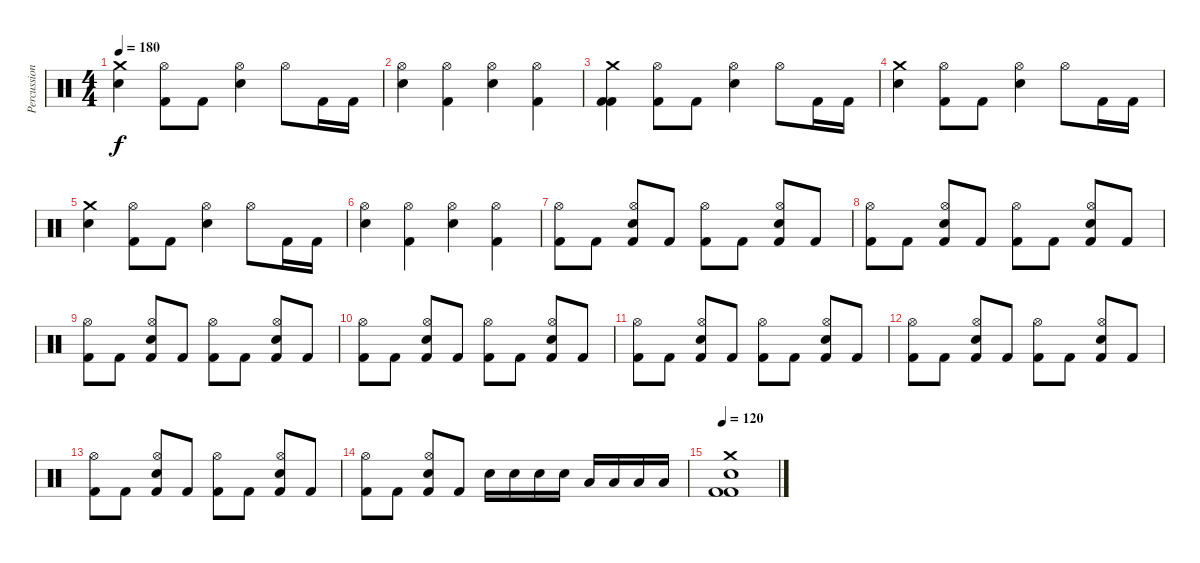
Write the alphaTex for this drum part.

\track ("Percussion" "Percussion") {instrument percussion}
\staff {score}
\articulation defaults
\ts (4 4)
\tempo 180
\clef neutral
\ks c
("Crash medium (hit)" "Electric Snare (hit)").4{dy f} ("Hi-Hat (open)" "Kick (hit) 2").8 "Kick (hit) 2".8 ("Hi-Hat (open)" "Electric Snare (hit)").4 "Hi-Hat (open)".8 "Kick (hit) 2".16 "Kick (hit) 2".16 |
("Hi-Hat (open)" "Electric Snare (hit)").4 ("Hi-Hat (open)" "Kick (hit) 2").4 ("Hi-Hat (open)" "Electric Snare (hit)").4 ("Hi-Hat (open)" "Kick (hit) 2").4 |
("Crash medium (hit)" "Kick (hit) 2" "Kick (hit) 2").4 ("Hi-Hat (open)" "Kick (hit) 2").8 "Kick (hit) 2".8 ("Hi-Hat (open)" "Electric Snare (hit)").4 "Hi-Hat (open)".8 "Kick (hit) 2".16 "Kick (hit) 2".16 |
("Crash medium (hit)" "Electric Snare (hit)").4 ("Hi-Hat (open)" "Kick (hit) 2").8 "Kick (hit) 2".8 ("Hi-Hat (open)" "Electric Snare (hit)").4 "Hi-Hat (open)".8 "Kick (hit) 2".16 "Kick (hit) 2".16 |
("Crash medium (hit)" "Electric Snare (hit)").4 ("Hi-Hat (open)" "Kick (hit) 2").8 "Kick (hit) 2".8 ("Hi-Hat (open)" "Electric Snare (hit)").4 "Hi-Hat (open)".8 "Kick (hit) 2".16 "Kick (hit) 2".16 |
("Hi-Hat (open)" "Electric Snare (hit)").4 ("Hi-Hat (open)" "Kick (hit) 2").4 ("Hi-Hat (open)" "Electric Snare (hit)").4 ("Hi-Hat (open)" "Kick (hit) 2").4 |
("Hi-Hat (open)" "Kick (hit) 2").8 "Kick (hit) 2".8 ("Hi-Hat (open)" "Kick (hit) 2" "Electric Snare (hit)").8 "Kick (hit) 2".8 ("Hi-Hat (open)" "Kick (hit) 2").8 "Kick (hit) 2".8 ("Hi-Hat (open)" "Kick (hit) 2" "Electric Snare (hit)").8 "Kick (hit) 2".8 |
("Hi-Hat (open)" "Kick (hit) 2").8 "Kick (hit) 2".8 ("Hi-Hat (open)" "Kick (hit) 2" "Electric Snare (hit)").8 "Kick (hit) 2".8 ("Hi-Hat (open)" "Kick (hit) 2").8 "Kick (hit) 2".8 ("Hi-Hat (open)" "Kick (hit) 2" "Electric Snare (hit)").8 "Kick (hit) 2".8 |
("Hi-Hat (open)" "Kick (hit) 2").8 "Kick (hit) 2".8 ("Hi-Hat (open)" "Kick (hit) 2" "Electric Snare (hit)").8 "Kick (hit) 2".8 ("Hi-Hat (open)" "Kick (hit) 2").8 "Kick (hit) 2".8 ("Hi-Hat (open)" "Kick (hit) 2" "Electric Snare (hit)").8 "Kick (hit) 2".8 |
("Hi-Hat (open)" "Kick (hit) 2").8 "Kick (hit) 2".8 ("Hi-Hat (open)" "Kick (hit) 2" "Electric Snare (hit)").8 "Kick (hit) 2".8 ("Hi-Hat (open)" "Kick (hit) 2").8 "Kick (hit) 2".8 ("Hi-Hat (open)" "Kick (hit) 2" "Electric Snare (hit)").8 "Kick (hit) 2".8 |
("Hi-Hat (open)" "Kick (hit) 2").8 "Kick (hit) 2".8 ("Hi-Hat (open)" "Kick (hit) 2" "Electric Snare (hit)").8 "Kick (hit) 2".8 ("Hi-Hat (open)" "Kick (hit) 2").8 "Kick (hit) 2".8 ("Hi-Hat (open)" "Kick (hit) 2" "Electric Snare (hit)").8 "Kick (hit) 2".8 |
("Hi-Hat (open)" "Kick (hit) 2").8 "Kick (hit) 2".8 ("Hi-Hat (open)" "Kick (hit) 2" "Electric Snare (hit)").8 "Kick (hit) 2".8 ("Hi-Hat (open)" "Kick (hit) 2").8 "Kick (hit) 2".8 ("Hi-Hat (open)" "Kick (hit) 2" "Electric Snare (hit)").8 "Kick (hit) 2".8 |
("Hi-Hat (open)" "Kick (hit) 2").8 "Kick (hit) 2".8 ("Hi-Hat (open)" "Kick (hit) 2" "Electric Snare (hit)").8 "Kick (hit) 2".8 ("Hi-Hat (open)" "Kick (hit) 2").8 "Kick (hit) 2".8 ("Hi-Hat (open)" "Kick (hit) 2" "Electric Snare (hit)").8 "Kick (hit) 2".8 |
("Hi-Hat (open)" "Kick (hit) 2").8 "Kick (hit) 2".8 ("Hi-Hat (open)" "Kick (hit) 2" "Electric Snare (hit)").8 "Kick (hit) 2".8 "Electric Snare (hit)".16 "Electric Snare (hit)".16 "Electric Snare (hit)".16 "Electric Snare (hit)".16 "Low Floor Tom (hit)".16 "Low Floor Tom (hit)".16 "Low Floor Tom (hit)".16 "Low Floor Tom (hit)".16 |
\tempo 120
("Crash medium (hit)" "Kick (hit) 2" "Kick (hit) 2" "Electric Snare (hit)").1
